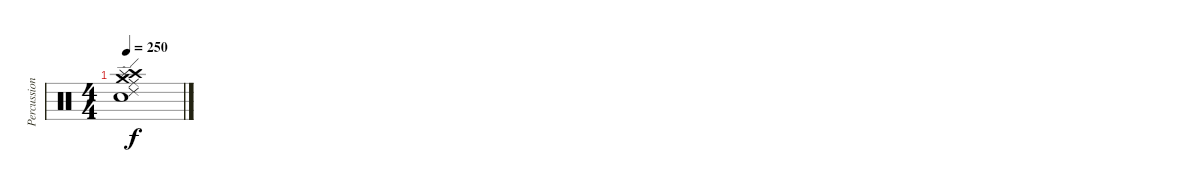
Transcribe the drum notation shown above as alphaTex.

\track ("Percussion" "Percussion") {instrument percussion}
\staff {score}
\articulation defaults
\ts (4 4)
\tempo 250
\clef neutral
\ks c
("Crash high (hit)" "Splash (hit)" "Snare (hit) 2" "Crash medium (hit)" "Ride (edge) 2" "Ride (middle)").1{dy f}
